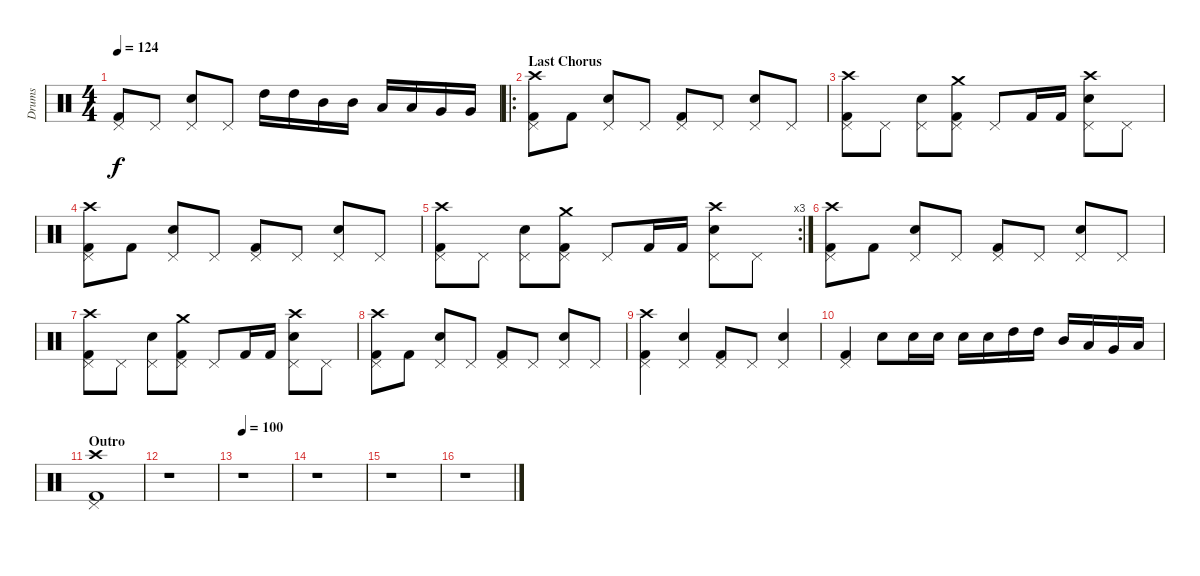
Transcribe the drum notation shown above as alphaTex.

\track ("Drums" "Drums") {instrument percussion}
\staff {score}
\articulation defaults
\ts (4 4)
\tempo 124
\clef neutral
\ks c
("Kick (hit) 2" "Pedal Hi-Hat (hit)").8{dy f} "Pedal Hi-Hat (hit)".8 ("Snare (hit) 2" "Pedal Hi-Hat (hit)").8 "Pedal Hi-Hat (hit)".8 "High Tom (hit)".16 "High Tom (hit)".16 "Mid Tom (hit)".16 "Mid Tom (hit)".16 "Low Tom (hit)".16 "Low Tom (hit)".16 "Very Low Tom (hit)".16 "Very Low Tom (hit)".16 |
\ro
\section ("" "Last Chorus")
("Kick (hit) 2" "Pedal Hi-Hat (hit)" "Crash high (hit)").8 "Kick (hit) 2".8 ("Snare (hit) 2" "Pedal Hi-Hat (hit)").8 "Pedal Hi-Hat (hit)".8 ("Kick (hit) 2" "Pedal Hi-Hat (hit)").8 "Pedal Hi-Hat (hit)".8 ("Snare (hit) 2" "Pedal Hi-Hat (hit)").8 "Pedal Hi-Hat (hit)".8 |
("Kick (hit) 2" "Pedal Hi-Hat (hit)" "Crash high (hit)").8 "Pedal Hi-Hat (hit)".8 ("Snare (hit) 2" "Pedal Hi-Hat (hit)").8 ("Kick (hit) 2" "Pedal Hi-Hat (hit)" "Crash medium (hit)").8 "Pedal Hi-Hat (hit)".8 "Kick (hit) 2".16 "Kick (hit) 2".16 ("Snare (hit) 2" "Pedal Hi-Hat (hit)" "Crash high (hit)").8 "Pedal Hi-Hat (hit)".8 |
("Kick (hit) 2" "Pedal Hi-Hat (hit)" "Crash high (hit)").8 "Kick (hit) 2".8 ("Snare (hit) 2" "Pedal Hi-Hat (hit)").8 "Pedal Hi-Hat (hit)".8 ("Kick (hit) 2" "Pedal Hi-Hat (hit)").8 "Pedal Hi-Hat (hit)".8 ("Snare (hit) 2" "Pedal Hi-Hat (hit)").8 "Pedal Hi-Hat (hit)".8 |
\rc 3
("Kick (hit) 2" "Pedal Hi-Hat (hit)" "Crash high (hit)").8 "Pedal Hi-Hat (hit)".8 ("Snare (hit) 2" "Pedal Hi-Hat (hit)").8 ("Kick (hit) 2" "Pedal Hi-Hat (hit)" "Crash medium (hit)").8 "Pedal Hi-Hat (hit)".8 "Kick (hit) 2".16 "Kick (hit) 2".16 ("Snare (hit) 2" "Pedal Hi-Hat (hit)" "Crash high (hit)").8 "Pedal Hi-Hat (hit)".8 |
("Kick (hit) 2" "Pedal Hi-Hat (hit)" "Crash high (hit)").8 "Kick (hit) 2".8 ("Snare (hit) 2" "Pedal Hi-Hat (hit)").8 "Pedal Hi-Hat (hit)".8 ("Kick (hit) 2" "Pedal Hi-Hat (hit)").8 "Pedal Hi-Hat (hit)".8 ("Snare (hit) 2" "Pedal Hi-Hat (hit)").8 "Pedal Hi-Hat (hit)".8 |
("Kick (hit) 2" "Pedal Hi-Hat (hit)" "Crash high (hit)").8 "Pedal Hi-Hat (hit)".8 ("Snare (hit) 2" "Pedal Hi-Hat (hit)").8 ("Kick (hit) 2" "Pedal Hi-Hat (hit)" "Crash medium (hit)").8 "Pedal Hi-Hat (hit)".8 "Kick (hit) 2".16 "Kick (hit) 2".16 ("Snare (hit) 2" "Pedal Hi-Hat (hit)" "Crash high (hit)").8 "Pedal Hi-Hat (hit)".8 |
("Kick (hit) 2" "Pedal Hi-Hat (hit)" "Crash high (hit)").8 "Kick (hit) 2".8 ("Snare (hit) 2" "Pedal Hi-Hat (hit)").8 "Pedal Hi-Hat (hit)".8 ("Kick (hit) 2" "Pedal Hi-Hat (hit)").8 "Pedal Hi-Hat (hit)".8 ("Snare (hit) 2" "Pedal Hi-Hat (hit)").8 "Pedal Hi-Hat (hit)".8 |
("Kick (hit) 2" "Pedal Hi-Hat (hit)" "Crash high (hit)").4 ("Snare (hit) 2" "Pedal Hi-Hat (hit)").4 ("Kick (hit) 2" "Pedal Hi-Hat (hit)").8 "Pedal Hi-Hat (hit)".8 ("Snare (hit) 2" "Pedal Hi-Hat (hit)").4 |
("Kick (hit) 2" "Pedal Hi-Hat (hit)").4 "Snare (hit) 2".8 "Snare (hit) 2".16 "Snare (hit) 2".16 "Snare (hit) 2".16 "Snare (hit) 2".16 "High Tom (hit)".16 "High Tom (hit)".16 "Mid Tom (hit)".16 "Low Tom (hit)".16 "Very Low Tom (hit)".16 "Low Floor Tom (hit)".16 |
\section ("" "Outro")
("Kick (hit) 2" "Pedal Hi-Hat (hit)" "Crash high (hit)").1 |
r.1 |
\tempo 100
r.1 |
r.1 |
r.1 |
r.1
